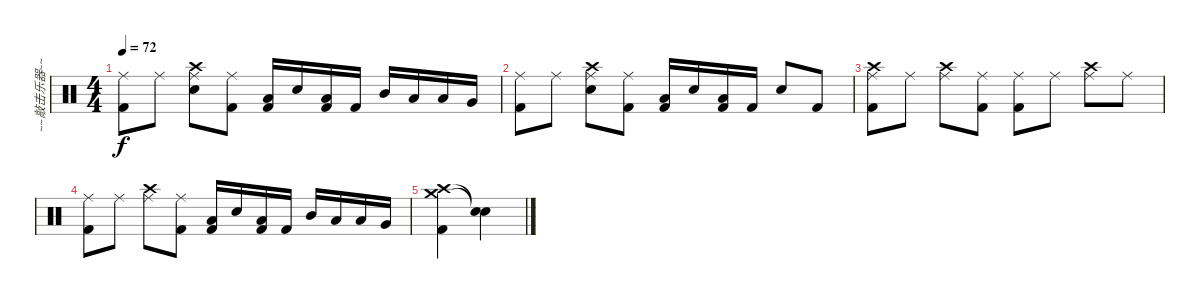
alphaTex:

\track ("~~敲击乐器~~" "~~敲击乐器~~") {instrument percussion}
\staff {score}
\articulation defaults
\ts (4 4)
\tempo 72
\clef neutral
\ks c
("Ride (middle)" "Kick (hit) 2").8{dy f} "Ride (middle)".8 ("Crash high (hit)" "Ride (middle)" "Snare (hit) 2").8 ("Ride (middle)" "Kick (hit) 2").8 ("Low Floor Tom (hit)" "Kick (hit) 2").16 "Snare (hit) 2".16 ("Low Floor Tom (hit)" "Kick (hit) 2").16 "Kick (hit) 2".16 "Mid Tom (hit)".16 "Low Tom (hit)".16 "Low Tom (hit)".16 "Very Low Tom (hit)".16 |
("Ride (middle)" "Kick (hit) 2").8 "Ride (middle)".8 ("Crash high (hit)" "Ride (middle)" "Snare (hit) 2").8 ("Ride (middle)" "Kick (hit) 2").8 ("Low Floor Tom (hit)" "Kick (hit) 2").16 "Snare (hit) 2".16 ("Low Floor Tom (hit)" "Kick (hit) 2").16 "Kick (hit) 2".16 "Snare (hit) 2".8 "Kick (hit) 2".8 |
("Crash high (hit)" "Ride (middle)" "Kick (hit) 2").8 "Ride (middle)".8 ("Crash high (hit)" "Ride (middle)").8 ("Ride (middle)" "Kick (hit) 2").8 ("Ride (middle)" "Kick (hit) 2").8 "Ride (middle)".8 ("Crash high (hit)" "Ride (middle)").8 "Ride (middle)".8 |
("Ride (middle)" "Kick (hit) 2").8 "Ride (middle)".8 ("Crash high (hit)" "Ride (middle)").8 ("Ride (middle)" "Kick (hit) 2").8 ("Low Floor Tom (hit)" "Kick (hit) 2").16 "Snare (hit) 2".16 ("Low Floor Tom (hit)" "Kick (hit) 2").16 "Kick (hit) 2".16 "Mid Tom (hit)".16 "Low Tom (hit)".16 "Low Tom (hit)".16 "Very Low Tom (hit)".16 |
("Crash high (hit)" "Crash medium (hit)" "Kick (hit) 2").4 ("Snare (hit)"{t} "Snare (hit)"{t}).4
